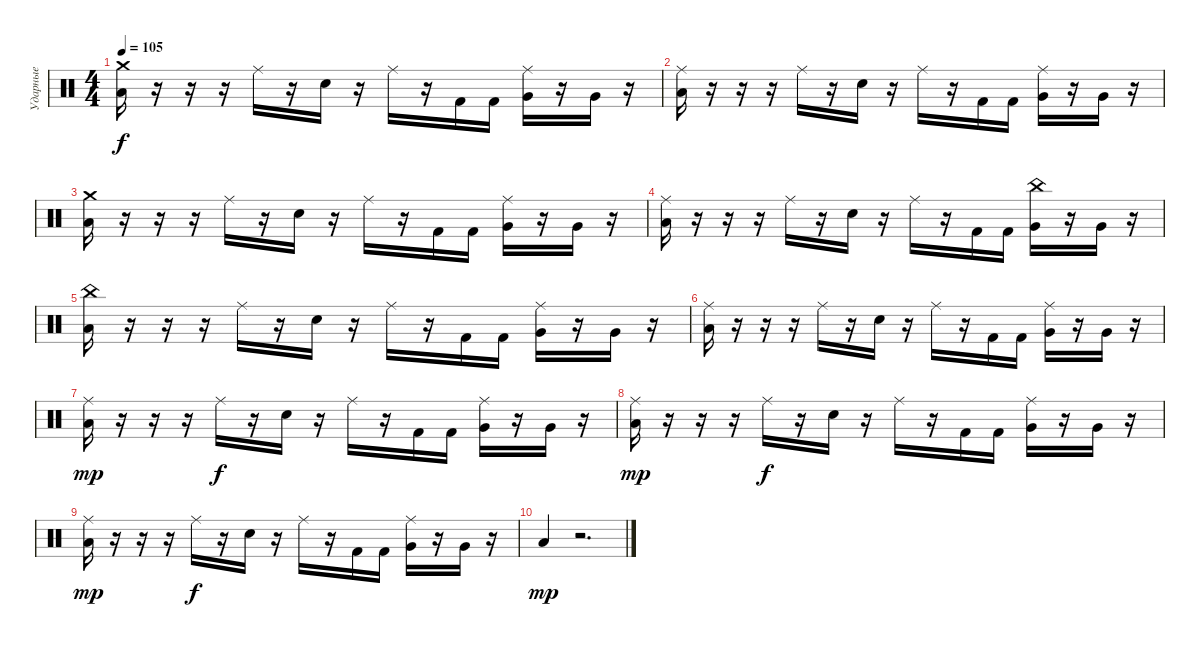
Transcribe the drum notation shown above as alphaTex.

\track ("Ударные" "Ударные") {instrument percussion}
\staff {score}
\articulation defaults
\ts (4 4)
\tempo 105
\clef neutral
\ks c
("Crash medium (hit)" "Low Floor Tom (hit)").16{dy f} r.16 r.16 r.16 "Ride (middle)".16 r.16 "Electric Snare (hit)".16 r.16 "Ride (middle)".16 r.16 "Kick (hit) 2".16 "Kick (hit) 2".16 ("Ride (middle)" "Very Low Tom (hit)").16 r.16 "Very Low Tom (hit)".16 r.16 |
("Ride (middle)" "Low Floor Tom (hit)").16 r.16 r.16 r.16 "Ride (middle)".16 r.16 "Electric Snare (hit)".16 r.16 "Ride (middle)".16 r.16 "Kick (hit) 2".16 "Kick (hit) 2".16 ("Ride (middle)" "Very Low Tom (hit)").16 r.16 "Very Low Tom (hit)".16 r.16 |
("Crash medium (hit)" "Low Floor Tom (hit)").16 r.16 r.16 r.16 "Ride (middle)".16 r.16 "Electric Snare (hit)".16 r.16 "Ride (middle)".16 r.16 "Kick (hit) 2".16 "Kick (hit) 2".16 ("Ride (middle)" "Very Low Tom (hit)").16 r.16 "Very Low Tom (hit)".16 r.16 |
("Ride (middle)" "Low Floor Tom (hit)").16 r.16 r.16 r.16 "Ride (middle)".16 r.16 "Electric Snare (hit)".16 r.16 "Ride (middle)".16 r.16 "Kick (hit) 2".16 "Kick (hit) 2".16 ("China (hit)" "Very Low Tom (hit)").16 r.16 "Very Low Tom (hit)".16 r.16 |
("China (hit)" "Low Floor Tom (hit)").16 r.16 r.16 r.16 "Ride (middle)".16 r.16 "Electric Snare (hit)".16 r.16 "Ride (middle)".16 r.16 "Kick (hit) 2".16 "Kick (hit) 2".16 ("Ride (middle)" "Very Low Tom (hit)").16 r.16 "Very Low Tom (hit)".16 r.16 |
("Ride (middle)" "Low Floor Tom (hit)").16 r.16 r.16 r.16 "Ride (middle)".16 r.16 "Electric Snare (hit)".16 r.16 "Ride (middle)".16 r.16 "Kick (hit) 2".16 "Kick (hit) 2".16 ("Ride (middle)" "Very Low Tom (hit)").16 r.16 "Very Low Tom (hit)".16 r.16 |
("Ride (middle)" "Low Floor Tom (hit)").16{dy mp} r.16 r.16 r.16 "Ride (middle)".16{dy f} r.16 "Electric Snare (hit)".16 r.16 "Ride (middle)".16 r.16 "Kick (hit) 2".16 "Kick (hit) 2".16 ("Ride (middle)" "Very Low Tom (hit)").16 r.16 "Very Low Tom (hit)".16 r.16 |
("Ride (middle)" "Low Floor Tom (hit)").16{dy mp} r.16 r.16 r.16 "Ride (middle)".16{dy f} r.16 "Electric Snare (hit)".16 r.16 "Ride (middle)".16 r.16 "Kick (hit) 2".16 "Kick (hit) 2".16 ("Ride (middle)" "Very Low Tom (hit)").16 r.16 "Very Low Tom (hit)".16 r.16 |
("Ride (middle)" "Low Floor Tom (hit)").16{dy mp} r.16 r.16 r.16 "Ride (middle)".16{dy f} r.16 "Electric Snare (hit)".16 r.16 "Ride (middle)".16 r.16 "Kick (hit) 2".16 "Kick (hit) 2".16 ("Ride (middle)" "Very Low Tom (hit)").16 r.16 "Very Low Tom (hit)".16 r.16 |
"Low Floor Tom (hit)".4{dy mp} r.2{d}
